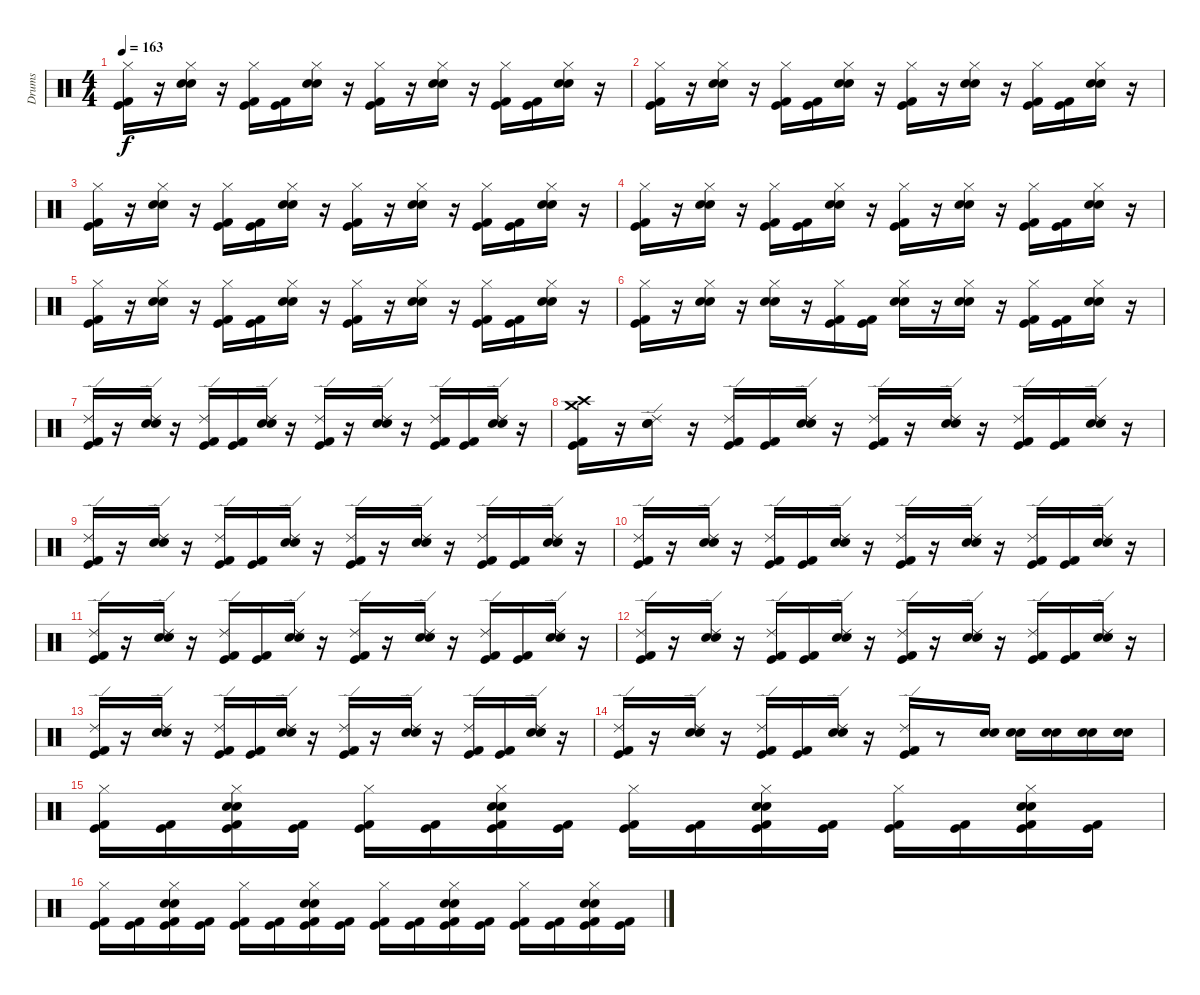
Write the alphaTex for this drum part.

\track ("Drums" "Drums") {instrument percussion}
\staff {score}
\articulation defaults
\ts (4 4)
\tempo 163
\clef neutral
\ks c
("Hi-Hat (closed)" "Kick (hit) 2" "Kick (hit)").16{dy f} r.16 ("Hi-Hat (closed)" "Electric Snare (hit)" "Snare (hit) 2").16 r.16 ("Kick (hit)" "Kick (hit) 2" "Hi-Hat (closed)").16 ("Kick (hit)" "Kick (hit) 2").16 ("Electric Snare (hit)" "Snare (hit) 2" "Hi-Hat (closed)").16 r.16 ("Kick (hit)" "Kick (hit) 2" "Hi-Hat (closed)").16 r.16 ("Electric Snare (hit)" "Snare (hit) 2" "Hi-Hat (closed)").16 r.16 ("Kick (hit) 2" "Kick (hit)" "Hi-Hat (closed)").16 ("Kick (hit) 2" "Kick (hit)").16 ("Electric Snare (hit)" "Snare (hit) 2" "Hi-Hat (closed)").16 r.16 |
("Hi-Hat (closed)" "Kick (hit) 2" "Kick (hit)").16 r.16 ("Hi-Hat (closed)" "Electric Snare (hit)" "Snare (hit) 2").16 r.16 ("Kick (hit)" "Kick (hit) 2" "Hi-Hat (closed)").16 ("Kick (hit)" "Kick (hit) 2").16 ("Electric Snare (hit)" "Snare (hit) 2" "Hi-Hat (closed)").16 r.16 ("Kick (hit)" "Kick (hit) 2" "Hi-Hat (closed)").16 r.16 ("Electric Snare (hit)" "Snare (hit) 2" "Hi-Hat (closed)").16 r.16 ("Kick (hit) 2" "Kick (hit)" "Hi-Hat (closed)").16 ("Kick (hit) 2" "Kick (hit)").16 ("Electric Snare (hit)" "Snare (hit) 2" "Hi-Hat (closed)").16 r.16 |
("Hi-Hat (closed)" "Kick (hit) 2" "Kick (hit)").16 r.16 ("Hi-Hat (closed)" "Electric Snare (hit)" "Snare (hit) 2").16 r.16 ("Kick (hit)" "Kick (hit) 2" "Hi-Hat (closed)").16 ("Kick (hit)" "Kick (hit) 2").16 ("Electric Snare (hit)" "Snare (hit) 2" "Hi-Hat (closed)").16 r.16 ("Kick (hit)" "Kick (hit) 2" "Hi-Hat (closed)").16 r.16 ("Electric Snare (hit)" "Snare (hit) 2" "Hi-Hat (closed)").16 r.16 ("Kick (hit) 2" "Kick (hit)" "Hi-Hat (closed)").16 ("Kick (hit) 2" "Kick (hit)").16 ("Electric Snare (hit)" "Snare (hit) 2" "Hi-Hat (closed)").16 r.16 |
("Hi-Hat (closed)" "Kick (hit) 2" "Kick (hit)").16 r.16 ("Hi-Hat (closed)" "Electric Snare (hit)" "Snare (hit) 2").16 r.16 ("Kick (hit)" "Kick (hit) 2" "Hi-Hat (closed)").16 ("Kick (hit)" "Kick (hit) 2").16 ("Electric Snare (hit)" "Snare (hit) 2" "Hi-Hat (closed)").16 r.16 ("Kick (hit)" "Kick (hit) 2" "Hi-Hat (closed)").16 r.16 ("Electric Snare (hit)" "Snare (hit) 2" "Hi-Hat (closed)").16 r.16 ("Kick (hit) 2" "Kick (hit)" "Hi-Hat (closed)").16 ("Kick (hit) 2" "Kick (hit)").16 ("Electric Snare (hit)" "Snare (hit) 2" "Hi-Hat (closed)").16 r.16 |
("Hi-Hat (closed)" "Kick (hit) 2" "Kick (hit)").16 r.16 ("Hi-Hat (closed)" "Electric Snare (hit)" "Snare (hit) 2").16 r.16 ("Kick (hit)" "Kick (hit) 2" "Hi-Hat (closed)").16 ("Kick (hit)" "Kick (hit) 2").16 ("Electric Snare (hit)" "Snare (hit) 2" "Hi-Hat (closed)").16 r.16 ("Kick (hit)" "Kick (hit) 2" "Hi-Hat (closed)").16 r.16 ("Electric Snare (hit)" "Snare (hit) 2" "Hi-Hat (closed)").16 r.16 ("Kick (hit) 2" "Kick (hit)" "Hi-Hat (closed)").16 ("Kick (hit) 2" "Kick (hit)").16 ("Electric Snare (hit)" "Snare (hit) 2" "Hi-Hat (closed)").16 r.16 |
("Hi-Hat (closed)" "Kick (hit) 2" "Kick (hit)").16 r.16 ("Hi-Hat (closed)" "Electric Snare (hit)" "Snare (hit) 2").16 r.16 ("Electric Snare (hit)" "Snare (hit) 2" "Hi-Hat (closed)").16 r.16 ("Kick (hit) 2" "Kick (hit)" "Hi-Hat (closed)").16 ("Kick (hit) 2" "Kick (hit)").16 ("Electric Snare (hit)" "Snare (hit) 2" "Hi-Hat (closed)").16 r.16 ("Electric Snare (hit)" "Snare (hit) 2" "Hi-Hat (closed)").16 r.16 ("Kick (hit) 2" "Kick (hit)" "Hi-Hat (closed)").16 ("Kick (hit) 2" "Kick (hit)").16 ("Electric Snare (hit)" "Snare (hit) 2" "Hi-Hat (closed)").16 r.16 |
("Ride (edge) 2" "Kick (hit) 2" "Kick (hit)").16 r.16 ("Ride (edge) 2" "Electric Snare (hit)" "Snare (hit) 2").16 r.16 ("Ride (edge) 2" "Kick (hit)" "Kick (hit) 2").16 ("Kick (hit)" "Kick (hit) 2").16 ("Ride (edge) 2" "Electric Snare (hit)" "Snare (hit) 2").16 r.16 ("Ride (edge) 2" "Kick (hit)" "Kick (hit) 2").16 r.16 ("Ride (edge) 2" "Electric Snare (hit)" "Snare (hit) 2").16 r.16 ("Ride (edge) 2" "Kick (hit) 2" "Kick (hit)").16 ("Kick (hit) 2" "Kick (hit)").16 ("Ride (edge) 2" "Electric Snare (hit)" "Snare (hit) 2").16 r.16 |
("Crash high (hit)" "Crash medium (hit)" "Kick (hit) 2" "Kick (hit)").16 r.16 ("Ride (edge) 2" "Electric Snare (hit)" "Snare (hit) 2").16 r.16 ("Ride (edge) 2" "Kick (hit)" "Kick (hit) 2").16 ("Kick (hit)" "Kick (hit) 2").16 ("Ride (edge) 2" "Electric Snare (hit)" "Snare (hit) 2").16 r.16 ("Ride (edge) 2" "Kick (hit)" "Kick (hit) 2").16 r.16 ("Ride (edge) 2" "Electric Snare (hit)" "Snare (hit) 2").16 r.16 ("Ride (edge) 2" "Kick (hit) 2" "Kick (hit)").16 ("Kick (hit) 2" "Kick (hit)").16 ("Ride (edge) 2" "Electric Snare (hit)" "Snare (hit) 2").16 r.16 |
("Ride (edge) 2" "Kick (hit) 2" "Kick (hit)").16 r.16 ("Ride (edge) 2" "Electric Snare (hit)" "Snare (hit) 2").16 r.16 ("Ride (edge) 2" "Kick (hit)" "Kick (hit) 2").16 ("Kick (hit)" "Kick (hit) 2").16 ("Ride (edge) 2" "Electric Snare (hit)" "Snare (hit) 2").16 r.16 ("Ride (edge) 2" "Kick (hit)" "Kick (hit) 2").16 r.16 ("Ride (edge) 2" "Electric Snare (hit)" "Snare (hit) 2").16 r.16 ("Ride (edge) 2" "Kick (hit) 2" "Kick (hit)").16 ("Kick (hit) 2" "Kick (hit)").16 ("Ride (edge) 2" "Electric Snare (hit)" "Snare (hit) 2").16 r.16 |
("Ride (edge) 2" "Kick (hit) 2" "Kick (hit)").16 r.16 ("Ride (edge) 2" "Electric Snare (hit)" "Snare (hit) 2").16 r.16 ("Ride (edge) 2" "Kick (hit)" "Kick (hit) 2").16 ("Kick (hit)" "Kick (hit) 2").16 ("Ride (edge) 2" "Electric Snare (hit)" "Snare (hit) 2").16 r.16 ("Ride (edge) 2" "Kick (hit)" "Kick (hit) 2").16 r.16 ("Ride (edge) 2" "Electric Snare (hit)" "Snare (hit) 2").16 r.16 ("Ride (edge) 2" "Kick (hit) 2" "Kick (hit)").16 ("Kick (hit) 2" "Kick (hit)").16 ("Ride (edge) 2" "Electric Snare (hit)" "Snare (hit) 2").16 r.16 |
("Ride (edge) 2" "Kick (hit) 2" "Kick (hit)").16 r.16 ("Ride (edge) 2" "Electric Snare (hit)" "Snare (hit) 2").16 r.16 ("Ride (edge) 2" "Kick (hit)" "Kick (hit) 2").16 ("Kick (hit)" "Kick (hit) 2").16 ("Ride (edge) 2" "Electric Snare (hit)" "Snare (hit) 2").16 r.16 ("Ride (edge) 2" "Kick (hit)" "Kick (hit) 2").16 r.16 ("Ride (edge) 2" "Electric Snare (hit)" "Snare (hit) 2").16 r.16 ("Ride (edge) 2" "Kick (hit) 2" "Kick (hit)").16 ("Kick (hit) 2" "Kick (hit)").16 ("Ride (edge) 2" "Electric Snare (hit)" "Snare (hit) 2").16 r.16 |
("Ride (edge) 2" "Kick (hit) 2" "Kick (hit)").16 r.16 ("Ride (edge) 2" "Electric Snare (hit)" "Snare (hit) 2").16 r.16 ("Ride (edge) 2" "Kick (hit)" "Kick (hit) 2").16 ("Kick (hit)" "Kick (hit) 2").16 ("Ride (edge) 2" "Electric Snare (hit)" "Snare (hit) 2").16 r.16 ("Ride (edge) 2" "Kick (hit)" "Kick (hit) 2").16 r.16 ("Ride (edge) 2" "Electric Snare (hit)" "Snare (hit) 2").16 r.16 ("Ride (edge) 2" "Kick (hit) 2" "Kick (hit)").16 ("Kick (hit) 2" "Kick (hit)").16 ("Ride (edge) 2" "Electric Snare (hit)" "Snare (hit) 2").16 r.16 |
("Ride (edge) 2" "Kick (hit) 2" "Kick (hit)").16 r.16 ("Ride (edge) 2" "Electric Snare (hit)" "Snare (hit) 2").16 r.16 ("Ride (edge) 2" "Kick (hit)" "Kick (hit) 2").16 ("Kick (hit)" "Kick (hit) 2").16 ("Ride (edge) 2" "Electric Snare (hit)" "Snare (hit) 2").16 r.16 ("Ride (edge) 2" "Kick (hit)" "Kick (hit) 2").16 r.16 ("Ride (edge) 2" "Electric Snare (hit)" "Snare (hit) 2").16 r.16 ("Ride (edge) 2" "Kick (hit) 2" "Kick (hit)").16 ("Kick (hit) 2" "Kick (hit)").16 ("Ride (edge) 2" "Electric Snare (hit)" "Snare (hit) 2").16 r.16 |
("Ride (edge) 2" "Kick (hit) 2" "Kick (hit)").16 r.16 ("Ride (edge) 2" "Electric Snare (hit)" "Snare (hit) 2").16 r.16 ("Ride (edge) 2" "Kick (hit)" "Kick (hit) 2").16 ("Kick (hit)" "Kick (hit) 2").16 ("Ride (edge) 2" "Electric Snare (hit)" "Snare (hit) 2").16 r.16 ("Ride (edge) 2" "Kick (hit)" "Kick (hit) 2").16 r.8 ("Electric Snare (hit)" "Snare (hit) 2").16 ("Snare (hit) 2" "Electric Snare (hit)").16 ("Electric Snare (hit)" "Snare (hit) 2").16 ("Electric Snare (hit)" "Snare (hit) 2").16 ("Electric Snare (hit)" "Snare (hit) 2").16 |
("Hi-Hat (closed)" "Kick (hit) 2" "Kick (hit)").16 ("Kick (hit) 2" "Kick (hit)").16 ("Electric Snare (hit)" "Snare (hit) 2" "Hi-Hat (closed)" "Kick (hit) 2" "Kick (hit)").16 ("Kick (hit) 2" "Kick (hit)").16 ("Hi-Hat (closed)" "Kick (hit) 2" "Kick (hit)").16 ("Kick (hit) 2" "Kick (hit)").16 ("Electric Snare (hit)" "Snare (hit) 2" "Hi-Hat (closed)" "Kick (hit) 2" "Kick (hit)").16 ("Kick (hit) 2" "Kick (hit)").16 ("Hi-Hat (closed)" "Kick (hit) 2" "Kick (hit)").16 ("Kick (hit) 2" "Kick (hit)").16 ("Electric Snare (hit)" "Snare (hit) 2" "Hi-Hat (closed)" "Kick (hit) 2" "Kick (hit)").16 ("Kick (hit) 2" "Kick (hit)").16 ("Hi-Hat (closed)" "Kick (hit) 2" "Kick (hit)").16 ("Kick (hit) 2" "Kick (hit)").16 ("Electric Snare (hit)" "Snare (hit) 2" "Hi-Hat (closed)" "Kick (hit) 2" "Kick (hit)").16 ("Kick (hit) 2" "Kick (hit)").16 |
("Hi-Hat (closed)" "Kick (hit) 2" "Kick (hit)").16 ("Kick (hit) 2" "Kick (hit)").16 ("Electric Snare (hit)" "Snare (hit) 2" "Hi-Hat (closed)" "Kick (hit) 2" "Kick (hit)").16 ("Kick (hit) 2" "Kick (hit)").16 ("Hi-Hat (closed)" "Kick (hit) 2" "Kick (hit)").16 ("Kick (hit) 2" "Kick (hit)").16 ("Electric Snare (hit)" "Snare (hit) 2" "Hi-Hat (closed)" "Kick (hit) 2" "Kick (hit)").16 ("Kick (hit) 2" "Kick (hit)").16 ("Hi-Hat (closed)" "Kick (hit) 2" "Kick (hit)").16 ("Kick (hit) 2" "Kick (hit)").16 ("Electric Snare (hit)" "Snare (hit) 2" "Hi-Hat (closed)" "Kick (hit) 2" "Kick (hit)").16 ("Kick (hit) 2" "Kick (hit)").16 ("Hi-Hat (closed)" "Kick (hit) 2" "Kick (hit)").16 ("Kick (hit) 2" "Kick (hit)").16 ("Electric Snare (hit)" "Snare (hit) 2" "Hi-Hat (closed)" "Kick (hit) 2" "Kick (hit)").16 ("Kick (hit) 2" "Kick (hit)").16
